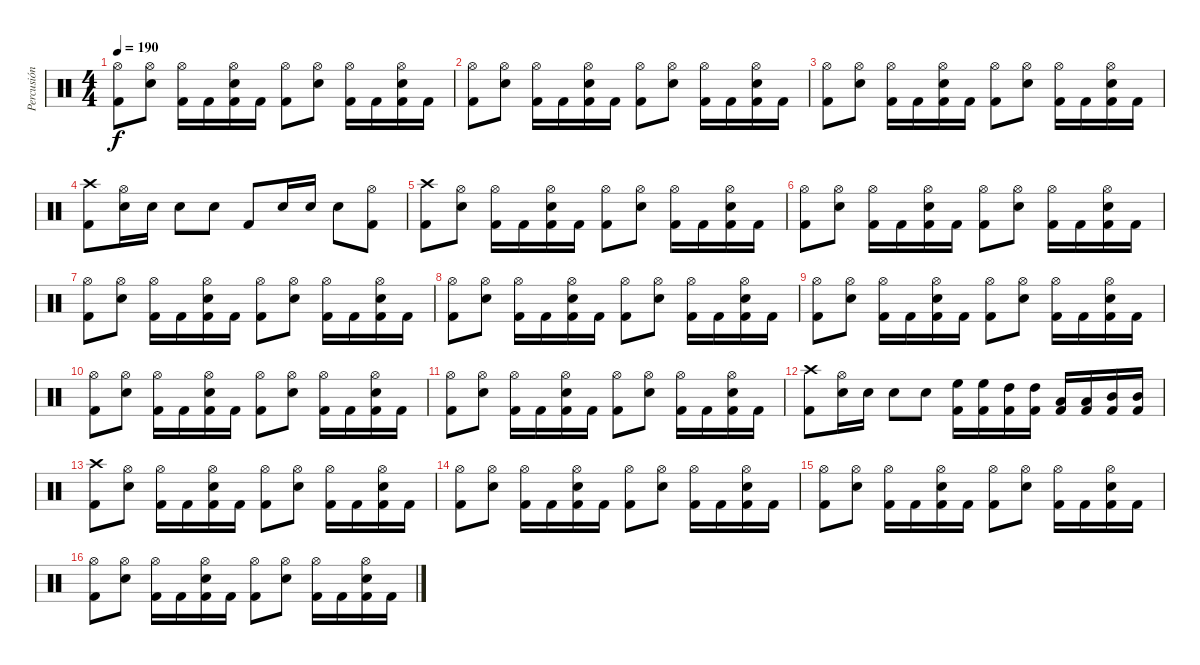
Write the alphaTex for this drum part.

\track ("Percusión" "Percusión") {instrument percussion}
\staff {score}
\articulation defaults
\ts (4 4)
\tempo 190
\clef neutral
\ks c
("Kick (hit) 2" "Hi-Hat (open)").8{dy f} ("Snare (hit) 2" "Hi-Hat (open)").8 ("Kick (hit) 2" "Hi-Hat (open)").16 "Kick (hit) 2".16 ("Kick (hit) 2" "Snare (hit) 2" "Hi-Hat (open)").16 "Kick (hit) 2".16 ("Kick (hit) 2" "Hi-Hat (open)").8 ("Snare (hit) 2" "Hi-Hat (open)").8 ("Kick (hit) 2" "Hi-Hat (open)").16 "Kick (hit) 2".16 ("Kick (hit) 2" "Snare (hit) 2" "Hi-Hat (open)").16 "Kick (hit) 2".16 |
("Kick (hit) 2" "Hi-Hat (open)").8 ("Snare (hit) 2" "Hi-Hat (open)").8 ("Kick (hit) 2" "Hi-Hat (open)").16 "Kick (hit) 2".16 ("Kick (hit) 2" "Snare (hit) 2" "Hi-Hat (open)").16 "Kick (hit) 2".16 ("Kick (hit) 2" "Hi-Hat (open)").8 ("Snare (hit) 2" "Hi-Hat (open)").8 ("Kick (hit) 2" "Hi-Hat (open)").16 "Kick (hit) 2".16 ("Kick (hit) 2" "Snare (hit) 2" "Hi-Hat (open)").16 "Kick (hit) 2".16 |
("Kick (hit) 2" "Hi-Hat (open)").8 ("Snare (hit) 2" "Hi-Hat (open)").8 ("Kick (hit) 2" "Hi-Hat (open)").16 "Kick (hit) 2".16 ("Kick (hit) 2" "Snare (hit) 2" "Hi-Hat (open)").16 "Kick (hit) 2".16 ("Kick (hit) 2" "Hi-Hat (open)").8 ("Snare (hit) 2" "Hi-Hat (open)").8 ("Kick (hit) 2" "Hi-Hat (open)").16 "Kick (hit) 2".16 ("Kick (hit) 2" "Snare (hit) 2" "Hi-Hat (open)").16 "Kick (hit) 2".16 |
("Kick (hit) 2" "Crash high (hit)").8 ("Snare (hit) 2" "Hi-Hat (open)").16 "Snare (hit) 2".16 "Snare (hit) 2".8 "Snare (hit) 2".8 "Kick (hit) 2".8 "Snare (hit) 2".16 "Snare (hit) 2".16 "Snare (hit) 2".8 ("Kick (hit) 2" "Hi-Hat (open)").8 |
("Kick (hit) 2" "Crash high (hit)").8 ("Snare (hit) 2" "Hi-Hat (open)").8 ("Kick (hit) 2" "Hi-Hat (open)").16 "Kick (hit) 2".16 ("Kick (hit) 2" "Snare (hit) 2" "Hi-Hat (open)").16 "Kick (hit) 2".16 ("Kick (hit) 2" "Hi-Hat (open)").8 ("Snare (hit) 2" "Hi-Hat (open)").8 ("Kick (hit) 2" "Hi-Hat (open)").16 "Kick (hit) 2".16 ("Kick (hit) 2" "Snare (hit) 2" "Hi-Hat (open)").16 "Kick (hit) 2".16 |
("Kick (hit) 2" "Hi-Hat (open)").8 ("Snare (hit) 2" "Hi-Hat (open)").8 ("Kick (hit) 2" "Hi-Hat (open)").16 "Kick (hit) 2".16 ("Kick (hit) 2" "Snare (hit) 2" "Hi-Hat (open)").16 "Kick (hit) 2".16 ("Kick (hit) 2" "Hi-Hat (open)").8 ("Snare (hit) 2" "Hi-Hat (open)").8 ("Kick (hit) 2" "Hi-Hat (open)").16 "Kick (hit) 2".16 ("Kick (hit) 2" "Snare (hit) 2" "Hi-Hat (open)").16 "Kick (hit) 2".16 |
("Kick (hit) 2" "Hi-Hat (open)").8 ("Snare (hit) 2" "Hi-Hat (open)").8 ("Kick (hit) 2" "Hi-Hat (open)").16 "Kick (hit) 2".16 ("Kick (hit) 2" "Snare (hit) 2" "Hi-Hat (open)").16 "Kick (hit) 2".16 ("Kick (hit) 2" "Hi-Hat (open)").8 ("Snare (hit) 2" "Hi-Hat (open)").8 ("Kick (hit) 2" "Hi-Hat (open)").16 "Kick (hit) 2".16 ("Kick (hit) 2" "Snare (hit) 2" "Hi-Hat (open)").16 "Kick (hit) 2".16 |
("Kick (hit) 2" "Hi-Hat (open)").8 ("Snare (hit) 2" "Hi-Hat (open)").8 ("Kick (hit) 2" "Hi-Hat (open)").16 "Kick (hit) 2".16 ("Kick (hit) 2" "Snare (hit) 2" "Hi-Hat (open)").16 "Kick (hit) 2".16 ("Kick (hit) 2" "Hi-Hat (open)").8 ("Snare (hit) 2" "Hi-Hat (open)").8 ("Kick (hit) 2" "Hi-Hat (open)").16 "Kick (hit) 2".16 ("Kick (hit) 2" "Snare (hit) 2" "Hi-Hat (open)").16 "Kick (hit) 2".16 |
("Kick (hit) 2" "Hi-Hat (open)").8 ("Snare (hit) 2" "Hi-Hat (open)").8 ("Kick (hit) 2" "Hi-Hat (open)").16 "Kick (hit) 2".16 ("Kick (hit) 2" "Snare (hit) 2" "Hi-Hat (open)").16 "Kick (hit) 2".16 ("Kick (hit) 2" "Hi-Hat (open)").8 ("Snare (hit) 2" "Hi-Hat (open)").8 ("Kick (hit) 2" "Hi-Hat (open)").16 "Kick (hit) 2".16 ("Kick (hit) 2" "Snare (hit) 2" "Hi-Hat (open)").16 "Kick (hit) 2".16 |
("Kick (hit) 2" "Hi-Hat (open)").8 ("Snare (hit) 2" "Hi-Hat (open)").8 ("Kick (hit) 2" "Hi-Hat (open)").16 "Kick (hit) 2".16 ("Kick (hit) 2" "Snare (hit) 2" "Hi-Hat (open)").16 "Kick (hit) 2".16 ("Kick (hit) 2" "Hi-Hat (open)").8 ("Snare (hit) 2" "Hi-Hat (open)").8 ("Kick (hit) 2" "Hi-Hat (open)").16 "Kick (hit) 2".16 ("Kick (hit) 2" "Snare (hit) 2" "Hi-Hat (open)").16 "Kick (hit) 2".16 |
("Kick (hit) 2" "Hi-Hat (open)").8 ("Snare (hit) 2" "Hi-Hat (open)").8 ("Kick (hit) 2" "Hi-Hat (open)").16 "Kick (hit) 2".16 ("Kick (hit) 2" "Snare (hit) 2" "Hi-Hat (open)").16 "Kick (hit) 2".16 ("Kick (hit) 2" "Hi-Hat (open)").8 ("Snare (hit) 2" "Hi-Hat (open)").8 ("Kick (hit) 2" "Hi-Hat (open)").16 "Kick (hit) 2".16 ("Kick (hit) 2" "Snare (hit) 2" "Hi-Hat (open)").16 "Kick (hit) 2".16 |
("Kick (hit) 2" "Crash high (hit)").8 ("Snare (hit) 2" "Hi-Hat (open)").16 "Snare (hit) 2".16 "Snare (hit) 2".8 "Snare (hit) 2".8 ("Kick (hit) 2" "High Floor Tom (hit)").16 ("Kick (hit) 2" "High Floor Tom (hit)").16 ("Kick (hit) 2" "High Tom (hit)").16 ("Kick (hit) 2" "High Tom (hit)").16 ("Kick (hit) 2" "Low Tom (hit)").16 ("Kick (hit) 2" "Low Tom (hit)").16 ("Kick (hit) 2" "Mid Tom (hit)").16 ("Kick (hit) 2" "Mid Tom (hit)").16 |
("Kick (hit) 2" "Crash high (hit)").8 ("Snare (hit) 2" "Hi-Hat (open)").8 ("Kick (hit) 2" "Hi-Hat (open)").16 "Kick (hit) 2".16 ("Kick (hit) 2" "Snare (hit) 2" "Hi-Hat (open)").16 "Kick (hit) 2".16 ("Kick (hit) 2" "Hi-Hat (open)").8 ("Snare (hit) 2" "Hi-Hat (open)").8 ("Kick (hit) 2" "Hi-Hat (open)").16 "Kick (hit) 2".16 ("Kick (hit) 2" "Snare (hit) 2" "Hi-Hat (open)").16 "Kick (hit) 2".16 |
("Kick (hit) 2" "Hi-Hat (open)").8 ("Snare (hit) 2" "Hi-Hat (open)").8 ("Kick (hit) 2" "Hi-Hat (open)").16 "Kick (hit) 2".16 ("Kick (hit) 2" "Snare (hit) 2" "Hi-Hat (open)").16 "Kick (hit) 2".16 ("Kick (hit) 2" "Hi-Hat (open)").8 ("Snare (hit) 2" "Hi-Hat (open)").8 ("Kick (hit) 2" "Hi-Hat (open)").16 "Kick (hit) 2".16 ("Kick (hit) 2" "Snare (hit) 2" "Hi-Hat (open)").16 "Kick (hit) 2".16 |
("Kick (hit) 2" "Hi-Hat (open)").8 ("Snare (hit) 2" "Hi-Hat (open)").8 ("Kick (hit) 2" "Hi-Hat (open)").16 "Kick (hit) 2".16 ("Kick (hit) 2" "Snare (hit) 2" "Hi-Hat (open)").16 "Kick (hit) 2".16 ("Kick (hit) 2" "Hi-Hat (open)").8 ("Snare (hit) 2" "Hi-Hat (open)").8 ("Kick (hit) 2" "Hi-Hat (open)").16 "Kick (hit) 2".16 ("Kick (hit) 2" "Snare (hit) 2" "Hi-Hat (open)").16 "Kick (hit) 2".16 |
("Kick (hit) 2" "Hi-Hat (open)").8 ("Snare (hit) 2" "Hi-Hat (open)").8 ("Kick (hit) 2" "Hi-Hat (open)").16 "Kick (hit) 2".16 ("Kick (hit) 2" "Snare (hit) 2" "Hi-Hat (open)").16 "Kick (hit) 2".16 ("Kick (hit) 2" "Hi-Hat (open)").8 ("Snare (hit) 2" "Hi-Hat (open)").8 ("Kick (hit) 2" "Hi-Hat (open)").16 "Kick (hit) 2".16 ("Kick (hit) 2" "Snare (hit) 2" "Hi-Hat (open)").16 "Kick (hit) 2".16
